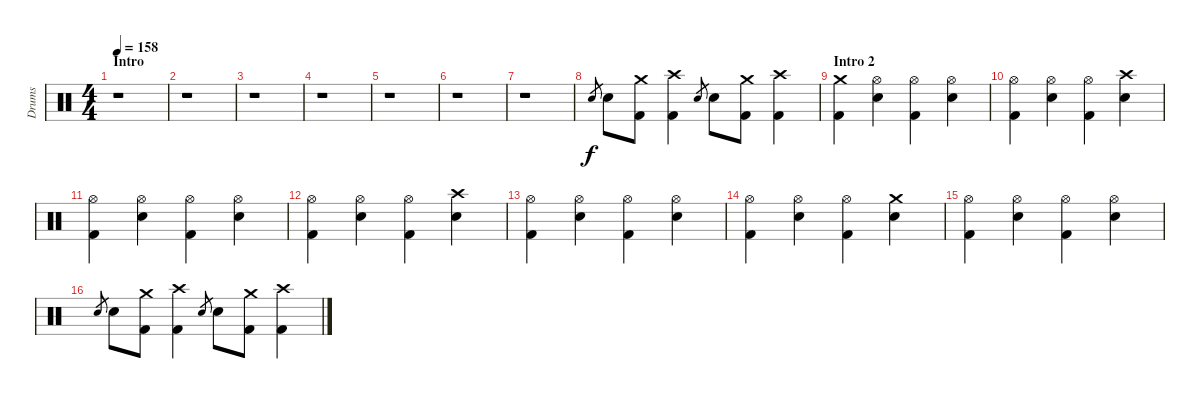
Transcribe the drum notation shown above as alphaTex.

\track ("Drums" "Drums") {instrument percussion}
\staff {score}
\articulation defaults
\ts (4 4)
\section ("" "Intro")
\tempo 158
\clef neutral
\ks c
r.1{dy f} |
r.1 |
r.1 |
r.1 |
r.1 |
r.1 |
r.1 |
"Snare (hit) 2".8{gr} "Snare (hit) 2".8 ("Crash medium (hit)" "Kick (hit) 2").8 ("Crash high (hit)" "Kick (hit) 2").4 "Snare (hit) 2".8{gr} "Snare (hit) 2".8 ("Crash medium (hit)" "Kick (hit) 2").8 ("Crash high (hit)" "Kick (hit) 2").4 |
\section ("" "Intro 2")
("Crash medium (hit)" "Kick (hit) 2").4 ("Hi-Hat (open)" "Snare (hit) 2").4 ("Hi-Hat (open)" "Kick (hit) 2").4 ("Hi-Hat (open)" "Snare (hit) 2").4 |
("Hi-Hat (open)" "Kick (hit) 2").4 ("Hi-Hat (open)" "Snare (hit) 2").4 ("Hi-Hat (open)" "Kick (hit) 2").4 ("Crash high (hit)" "Snare (hit) 2").4 |
("Hi-Hat (open)" "Kick (hit) 2").4 ("Hi-Hat (open)" "Snare (hit) 2").4 ("Hi-Hat (open)" "Kick (hit) 2").4 ("Hi-Hat (open)" "Snare (hit) 2").4 |
("Hi-Hat (open)" "Kick (hit) 2").4 ("Hi-Hat (open)" "Snare (hit) 2").4 ("Hi-Hat (open)" "Kick (hit) 2").4 ("Crash high (hit)" "Snare (hit) 2").4 |
("Hi-Hat (open)" "Kick (hit) 2").4 ("Hi-Hat (open)" "Snare (hit) 2").4 ("Hi-Hat (open)" "Kick (hit) 2").4 ("Hi-Hat (open)" "Snare (hit) 2").4 |
("Hi-Hat (open)" "Kick (hit) 2").4 ("Hi-Hat (open)" "Snare (hit) 2").4 ("Hi-Hat (open)" "Kick (hit) 2").4 ("Crash medium (hit)" "Snare (hit) 2").4 |
("Hi-Hat (open)" "Kick (hit) 2").4 ("Hi-Hat (open)" "Snare (hit) 2").4 ("Hi-Hat (open)" "Kick (hit) 2").4 ("Hi-Hat (open)" "Snare (hit) 2").4 |
"Snare (hit) 2".8{gr} "Snare (hit) 2".8 ("Crash medium (hit)" "Kick (hit) 2").8 ("Crash high (hit)" "Kick (hit) 2").4 "Snare (hit) 2".8{gr} "Snare (hit) 2".8 ("Crash medium (hit)" "Kick (hit) 2").8 ("Crash high (hit)" "Kick (hit) 2").4
